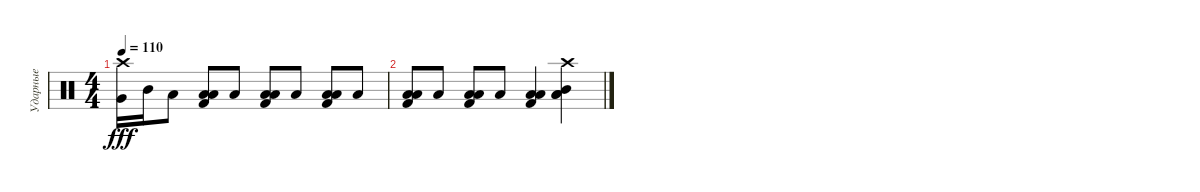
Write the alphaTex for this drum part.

\track ("Ударные" "Ударные") {instrument percussion}
\staff {score}
\articulation defaults
\ts (4 4)
\tempo 110
\clef neutral
\ks c
("Crash high (hit)" "Very Low Tom (hit)").16{dy fff} "Mid Tom (hit)".16 "Low Floor Tom (hit)".8 ("Low Tom (hit)" "Kick (hit) 2" "Low Floor Tom (hit)").8 "Low Floor Tom (hit)".8 ("Low Tom (hit)" "Kick (hit) 2" "Low Floor Tom (hit)").8 "Low Floor Tom (hit)".8 ("Low Tom (hit)" "Kick (hit) 2" "Low Floor Tom (hit)").8 "Low Floor Tom (hit)".8 |
("Low Tom (hit)" "Kick (hit) 2" "Low Floor Tom (hit)").8 "Low Floor Tom (hit)".8 ("Low Tom (hit)" "Kick (hit) 2" "Low Floor Tom (hit)").8 "Low Floor Tom (hit)".8 ("Low Tom (hit)" "Kick (hit) 2" "Low Floor Tom (hit)").4 ("Crash high (hit)" "Low Tom (hit)" "Mid Tom (hit)" "Low Floor Tom (hit)").4
